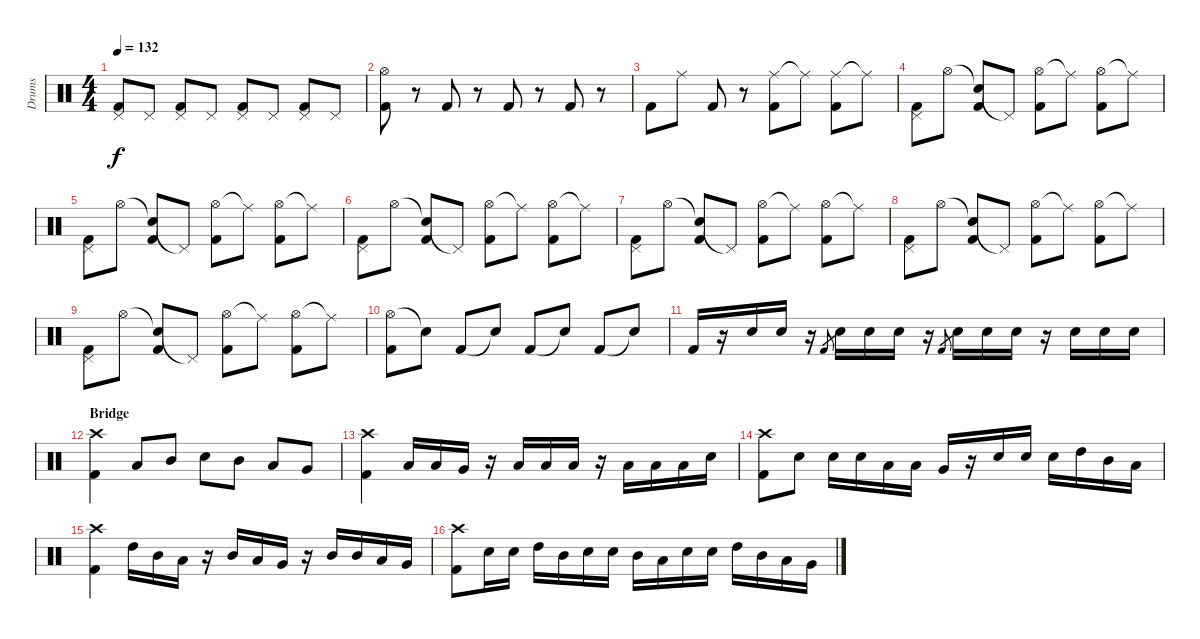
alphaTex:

\track ("Drums" "Drums") {instrument percussion}
\staff {score}
\articulation defaults
\ts (4 4)
\tempo 132
\clef neutral
\ks c
("Pedal Hi-Hat (hit)" "Kick (hit) 2").8{dy f} "Pedal Hi-Hat (hit)".8 ("Pedal Hi-Hat (hit)" "Kick (hit) 2").8 "Pedal Hi-Hat (hit)".8 ("Pedal Hi-Hat (hit)" "Kick (hit) 2").8 "Pedal Hi-Hat (hit)".8 ("Pedal Hi-Hat (hit)" "Kick (hit) 2").8 "Pedal Hi-Hat (hit)".8 |
("Hi-Hat (open)" "Kick (hit) 2").8 r.8 "Kick (hit) 2".8 r.8 "Kick (hit) 2".8 r.8 "Kick (hit) 2".8 r.8 |
"Kick (hit) 2".8 "Ride (middle)".8 "Kick (hit) 2".8 r.8 ("Ride (middle)" "Kick (hit) 2").8 "Ride (middle)"{t}.8 ("Ride (middle)" "Kick (hit) 2").8 "Ride (middle)"{t}.8 |
("Pedal Hi-Hat (hit)" "Kick (hit) 2").8 "Hi-Hat (open)".8 ("Snare (hit)"{t} "Kick (hit) 2").8 "Pedal Hi-Hat (hit)"{t}.8 ("Hi-Hat (open)" "Kick (hit) 2").8 "Ride (middle)"{t}.8 ("Hi-Hat (open)" "Kick (hit) 2").8 "Ride (middle)"{t}.8 |
("Pedal Hi-Hat (hit)" "Kick (hit) 2").8 "Hi-Hat (open)".8 ("Snare (hit)"{t} "Kick (hit) 2").8 "Pedal Hi-Hat (hit)"{t}.8 ("Hi-Hat (open)" "Kick (hit) 2").8 "Ride (middle)"{t}.8 ("Hi-Hat (open)" "Kick (hit) 2").8 "Ride (middle)"{t}.8 |
("Pedal Hi-Hat (hit)" "Kick (hit) 2").8 "Hi-Hat (open)".8 ("Snare (hit)"{t} "Kick (hit) 2").8 "Pedal Hi-Hat (hit)"{t}.8 ("Hi-Hat (open)" "Kick (hit) 2").8 "Ride (middle)"{t}.8 ("Hi-Hat (open)" "Kick (hit) 2").8 "Ride (middle)"{t}.8 |
("Pedal Hi-Hat (hit)" "Kick (hit) 2").8 "Hi-Hat (open)".8 ("Snare (hit)"{t} "Kick (hit) 2").8 "Pedal Hi-Hat (hit)"{t}.8 ("Hi-Hat (open)" "Kick (hit) 2").8 "Ride (middle)"{t}.8 ("Hi-Hat (open)" "Kick (hit) 2").8 "Ride (middle)"{t}.8 |
("Pedal Hi-Hat (hit)" "Kick (hit) 2").8 "Hi-Hat (open)".8 ("Snare (hit)"{t} "Kick (hit) 2").8 "Pedal Hi-Hat (hit)"{t}.8 ("Hi-Hat (open)" "Kick (hit) 2").8 "Ride (middle)"{t}.8 ("Hi-Hat (open)" "Kick (hit) 2").8 "Ride (middle)"{t}.8 |
("Pedal Hi-Hat (hit)" "Kick (hit) 2").8 "Hi-Hat (open)".8 ("Snare (hit)"{t} "Kick (hit) 2").8 "Pedal Hi-Hat (hit)"{t}.8 ("Hi-Hat (open)" "Kick (hit) 2").8 "Ride (middle)"{t}.8 ("Hi-Hat (open)" "Kick (hit) 2").8 "Ride (middle)"{t}.8 |
("Hi-Hat (open)" "Kick (hit) 2").8 "Snare (hit)"{t}.8 "Kick (hit) 2".8 "Snare (hit)"{t}.8 "Kick (hit) 2".8 "Snare (hit)"{t}.8 "Kick (hit) 2".8 "Snare (hit)"{t}.8 |
"Kick (hit) 2".16 r.16 "Snare (hit) 2".16 "Snare (hit) 2".16 r.16 "Kick (hit) 2".8{gr} "Snare (hit) 2".16 "Snare (hit) 2".16 "Snare (hit) 2".16 r.16 "Kick (hit) 2".8{gr} "Snare (hit) 2".16 "Snare (hit) 2".16 "Snare (hit) 2".16 r.16 "Snare (hit) 2".16 "Snare (hit) 2".16 "Snare (hit) 2".16 |
\section ("" "Bridge")
("Crash high (hit)" "Kick (hit) 2").4 "Low Tom (hit)".8 "Mid Tom (hit)".8 "Snare (hit) 2".8 "Mid Tom (hit)".8 "Low Tom (hit)".8 "Very Low Tom (hit)".8 |
("Crash high (hit)" "Kick (hit) 2").4 "Low Tom (hit)".16 "Low Tom (hit)".16 "Very Low Tom (hit)".16 r.16 "Low Tom (hit)".16 "Low Tom (hit)".16 "Low Tom (hit)".16 r.16 "Low Tom (hit)".16 "Low Tom (hit)".16 "Low Tom (hit)".16 "Snare (hit) 2".16 |
("Crash high (hit)" "Kick (hit) 2").8 "Snare (hit) 2".8 "Snare (hit) 2".16 "Snare (hit) 2".16 "Low Tom (hit)".16 "Low Tom (hit)".16 "Very Low Tom (hit)".16 r.16 "Snare (hit) 2".16 "Snare (hit) 2".16 "Snare (hit) 2".16 "High Tom (hit)".16 "Mid Tom (hit)".16 "Low Tom (hit)".16 |
("Crash high (hit)" "Kick (hit) 2").4 "High Tom (hit)".16 "Mid Tom (hit)".16 "Low Tom (hit)".16 r.16 "Mid Tom (hit)".16 "Low Tom (hit)".16 "Very Low Tom (hit)".16 r.16 "Mid Tom (hit)".16 "Mid Tom (hit)".16 "Low Tom (hit)".16 "Very Low Tom (hit)".16 |
("Crash high (hit)" "Kick (hit) 2").8 "Snare (hit) 2".16 "Snare (hit) 2".16 "High Tom (hit)".16 "Mid Tom (hit)".16 "Snare (hit) 2".16 "Snare (hit) 2".16 "Mid Tom (hit)".16 "Low Tom (hit)".16 "Snare (hit) 2".16 "Snare (hit) 2".16 "High Tom (hit)".16 "Mid Tom (hit)".16 "Low Tom (hit)".16 "Very Low Tom (hit)".16
